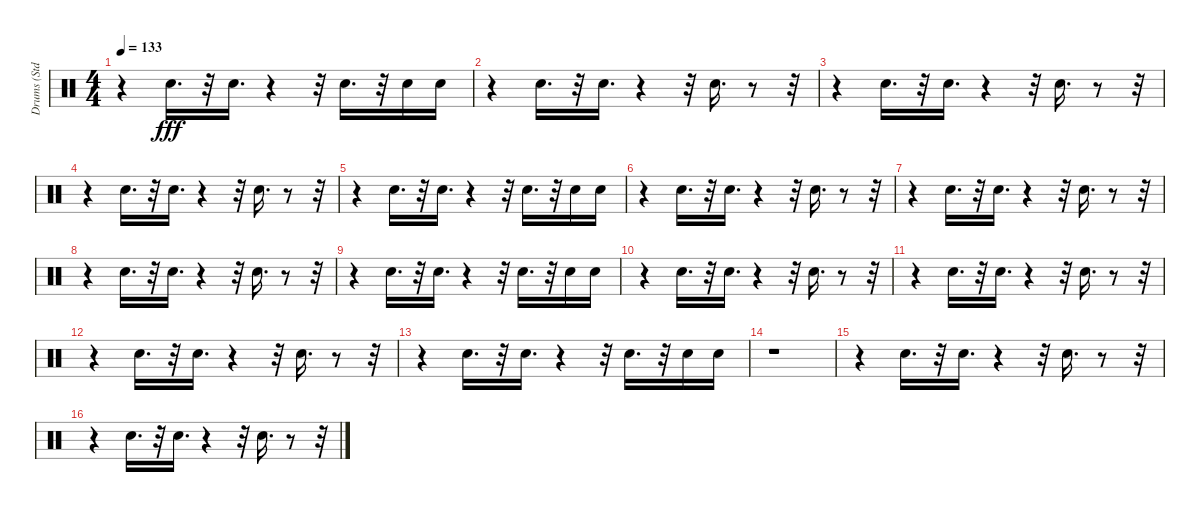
\track ("Drums (Std.)" "Drums (Std") {instrument percussion}
\staff {score}
\articulation defaults
\ts (4 4)
\tempo 133
\clef neutral
\ks c
r.4{dy fff} "Snare (hit) 2".16{d} r.32 "Snare (hit) 2".16{d} r.4 r.32 "Snare (hit) 2".16{d} r.32 "Snare (hit) 2".16 "Snare (hit) 2".16 |
r.4 "Snare (hit) 2".16{d} r.32 "Snare (hit) 2".16{d} r.4 r.32 "Snare (hit) 2".16{d} r.8 r.32 |
r.4 "Snare (hit) 2".16{d} r.32 "Snare (hit) 2".16{d} r.4 r.32 "Snare (hit) 2".16{d} r.8 r.32 |
r.4 "Snare (hit) 2".16{d} r.32 "Snare (hit) 2".16{d} r.4 r.32 "Snare (hit) 2".16{d} r.8 r.32 |
r.4 "Snare (hit) 2".16{d} r.32 "Snare (hit) 2".16{d} r.4 r.32 "Snare (hit) 2".16{d} r.32 "Snare (hit) 2".16 "Snare (hit) 2".16 |
r.4 "Snare (hit) 2".16{d} r.32 "Snare (hit) 2".16{d} r.4 r.32 "Snare (hit) 2".16{d} r.8 r.32 |
r.4 "Snare (hit) 2".16{d} r.32 "Snare (hit) 2".16{d} r.4 r.32 "Snare (hit) 2".16{d} r.8 r.32 |
r.4 "Snare (hit) 2".16{d} r.32 "Snare (hit) 2".16{d} r.4 r.32 "Snare (hit) 2".16{d} r.8 r.32 |
r.4 "Snare (hit) 2".16{d} r.32 "Snare (hit) 2".16{d} r.4 r.32 "Snare (hit) 2".16{d} r.32 "Snare (hit) 2".16 "Snare (hit) 2".16 |
r.4 "Snare (hit) 2".16{d} r.32 "Snare (hit) 2".16{d} r.4 r.32 "Snare (hit) 2".16{d} r.8 r.32 |
r.4 "Snare (hit) 2".16{d} r.32 "Snare (hit) 2".16{d} r.4 r.32 "Snare (hit) 2".16{d} r.8 r.32 |
r.4 "Snare (hit) 2".16{d} r.32 "Snare (hit) 2".16{d} r.4 r.32 "Snare (hit) 2".16{d} r.8 r.32 |
r.4 "Snare (hit) 2".16{d} r.32 "Snare (hit) 2".16{d} r.4 r.32 "Snare (hit) 2".16{d} r.32 "Snare (hit) 2".16 "Snare (hit) 2".16 |
r.1 |
r.4 "Snare (hit) 2".16{d} r.32 "Snare (hit) 2".16{d} r.4 r.32 "Snare (hit) 2".16{d} r.8 r.32 |
r.4 "Snare (hit) 2".16{d} r.32 "Snare (hit) 2".16{d} r.4 r.32 "Snare (hit) 2".16{d} r.8 r.32
